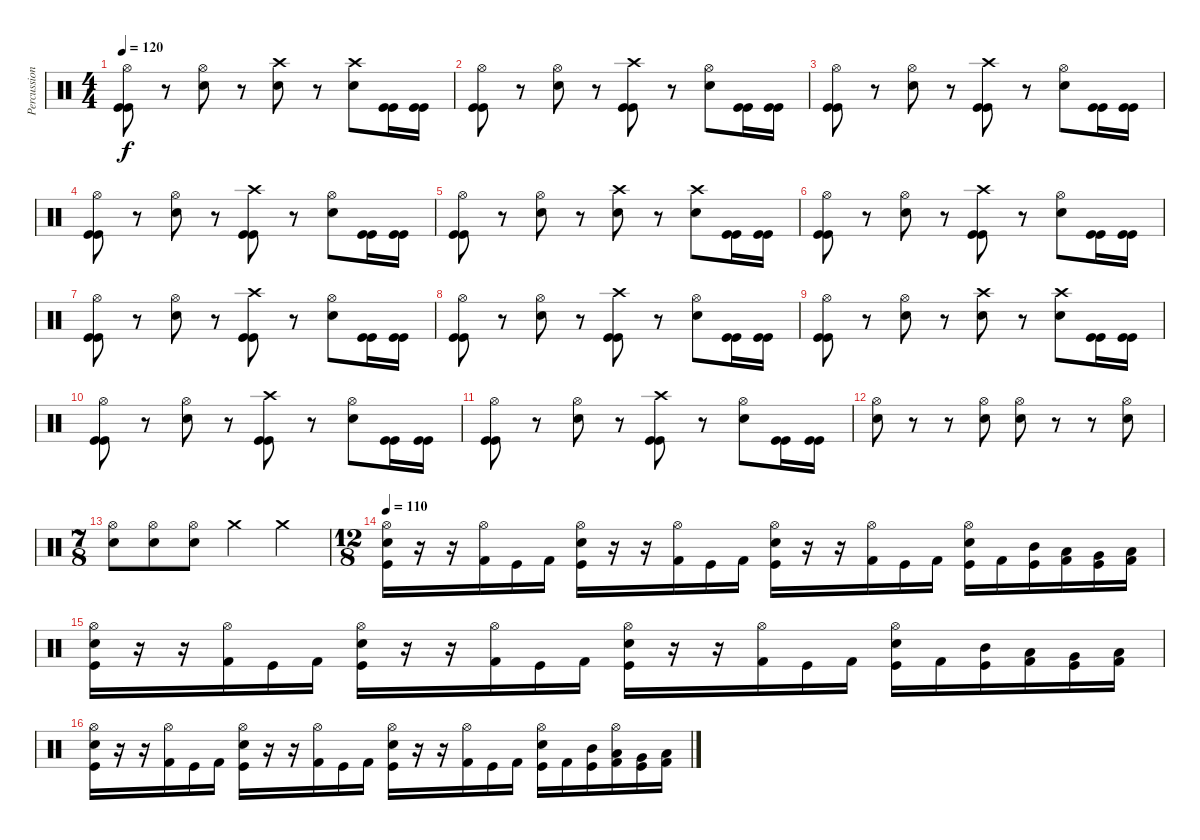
\track ("Percussion" "Percussion") {instrument percussion}
\staff {score}
\articulation defaults
\ts (4 4)
\tempo 120
\clef neutral
\ks c
("Hi-Hat (open)" "Kick (hit)" "Kick (hit)").8{dy f} r.8 ("Hi-Hat (open)" "Snare (hit) 2").8 r.8 ("Crash high (hit)" "Snare (hit) 2").8 r.8 ("Crash high (hit)" "Snare (hit) 2").8 ("Kick (hit)" "Kick (hit)").16 ("Kick (hit)" "Kick (hit)").16 |
("Hi-Hat (open)" "Kick (hit)" "Kick (hit)").8 r.8 ("Hi-Hat (open)" "Snare (hit) 2").8 r.8 ("Crash high (hit)" "Kick (hit)" "Kick (hit)").8 r.8 ("Hi-Hat (open)" "Snare (hit) 2").8 ("Kick (hit)" "Kick (hit)").16 ("Kick (hit)" "Kick (hit)").16 |
("Hi-Hat (open)" "Kick (hit)" "Kick (hit)").8 r.8 ("Hi-Hat (open)" "Snare (hit) 2").8 r.8 ("Crash high (hit)" "Kick (hit)" "Kick (hit)").8 r.8 ("Hi-Hat (open)" "Snare (hit) 2").8 ("Kick (hit)" "Kick (hit)").16 ("Kick (hit)" "Kick (hit)").16 |
("Hi-Hat (open)" "Kick (hit)" "Kick (hit)").8 r.8 ("Hi-Hat (open)" "Snare (hit) 2").8 r.8 ("Crash high (hit)" "Kick (hit)" "Kick (hit)").8 r.8 ("Hi-Hat (open)" "Snare (hit) 2").8 ("Kick (hit)" "Kick (hit)").16 ("Kick (hit)" "Kick (hit)").16 |
("Hi-Hat (open)" "Kick (hit)" "Kick (hit)").8 r.8 ("Hi-Hat (open)" "Snare (hit) 2").8 r.8 ("Crash high (hit)" "Snare (hit) 2").8 r.8 ("Crash high (hit)" "Snare (hit) 2").8 ("Kick (hit)" "Kick (hit)").16 ("Kick (hit)" "Kick (hit)").16 |
("Hi-Hat (open)" "Kick (hit)" "Kick (hit)").8 r.8 ("Hi-Hat (open)" "Snare (hit) 2").8 r.8 ("Crash high (hit)" "Kick (hit)" "Kick (hit)").8 r.8 ("Hi-Hat (open)" "Snare (hit) 2").8 ("Kick (hit)" "Kick (hit)").16 ("Kick (hit)" "Kick (hit)").16 |
("Hi-Hat (open)" "Kick (hit)" "Kick (hit)").8 r.8 ("Hi-Hat (open)" "Snare (hit) 2").8 r.8 ("Crash high (hit)" "Kick (hit)" "Kick (hit)").8 r.8 ("Hi-Hat (open)" "Snare (hit) 2").8 ("Kick (hit)" "Kick (hit)").16 ("Kick (hit)" "Kick (hit)").16 |
("Hi-Hat (open)" "Kick (hit)" "Kick (hit)").8 r.8 ("Hi-Hat (open)" "Snare (hit) 2").8 r.8 ("Crash high (hit)" "Kick (hit)" "Kick (hit)").8 r.8 ("Hi-Hat (open)" "Snare (hit) 2").8 ("Kick (hit)" "Kick (hit)").16 ("Kick (hit)" "Kick (hit)").16 |
("Hi-Hat (open)" "Kick (hit)" "Kick (hit)").8 r.8 ("Hi-Hat (open)" "Snare (hit) 2").8 r.8 ("Crash high (hit)" "Snare (hit) 2").8 r.8 ("Crash high (hit)" "Snare (hit) 2").8 ("Kick (hit)" "Kick (hit)").16 ("Kick (hit)" "Kick (hit)").16 |
("Hi-Hat (open)" "Kick (hit)" "Kick (hit)").8 r.8 ("Hi-Hat (open)" "Snare (hit) 2").8 r.8 ("Crash high (hit)" "Kick (hit)" "Kick (hit)").8 r.8 ("Hi-Hat (open)" "Snare (hit) 2").8 ("Kick (hit)" "Kick (hit)").16 ("Kick (hit)" "Kick (hit)").16 |
("Hi-Hat (open)" "Kick (hit)" "Kick (hit)").8 r.8 ("Hi-Hat (open)" "Snare (hit) 2").8 r.8 ("Crash high (hit)" "Kick (hit)" "Kick (hit)").8 r.8 ("Hi-Hat (open)" "Snare (hit) 2").8 ("Kick (hit)" "Kick (hit)").16 ("Kick (hit)" "Kick (hit)").16 |
("Hi-Hat (open)" "Snare (hit) 2").8 r.8 r.8 ("Hi-Hat (open)" "Snare (hit) 2").8 ("Hi-Hat (open)" "Snare (hit) 2").8 r.8 r.8 ("Hi-Hat (open)" "Snare (hit) 2").8 |
\ts (7 8)
("Hi-Hat (open)" "Snare (hit) 2").8 ("Hi-Hat (open)" "Snare (hit) 2").8 ("Hi-Hat (open)" "Snare (hit) 2").8 "Crash medium (hit)".4 "Crash medium (hit)".4 |
\ts (12 8)
\tempo 110
("Hi-Hat (open)" "Snare (hit) 2" "Kick (hit)").16 r.16 r.16 ("Hi-Hat (open)" "Kick (hit) 2").16 "Kick (hit)".16 "Kick (hit) 2".16 ("Hi-Hat (open)" "Snare (hit) 2" "Kick (hit)").16 r.16 r.16 ("Hi-Hat (open)" "Kick (hit) 2").16 "Kick (hit)".16 "Kick (hit) 2".16 ("Hi-Hat (open)" "Snare (hit) 2" "Kick (hit)").16 r.16 r.16 ("Hi-Hat (open)" "Kick (hit) 2").16 "Kick (hit)".16 "Kick (hit) 2".16 ("Hi-Hat (open)" "Snare (hit) 2" "Kick (hit)").16 "Kick (hit) 2".16 ("Mid Tom (hit)" "Kick (hit)").16 ("Low Tom (hit)" "Kick (hit) 2").16 ("Very Low Tom (hit)" "Kick (hit)").16 ("Low Floor Tom (hit)" "Kick (hit) 2").16 |
("Hi-Hat (open)" "Snare (hit) 2" "Kick (hit)").16 r.16 r.16 ("Hi-Hat (open)" "Kick (hit) 2").16 "Kick (hit)".16 "Kick (hit) 2".16 ("Hi-Hat (open)" "Snare (hit) 2" "Kick (hit)").16 r.16 r.16 ("Hi-Hat (open)" "Kick (hit) 2").16 "Kick (hit)".16 "Kick (hit) 2".16 ("Hi-Hat (open)" "Snare (hit) 2" "Kick (hit)").16 r.16 r.16 ("Hi-Hat (open)" "Kick (hit) 2").16 "Kick (hit)".16 "Kick (hit) 2".16 ("Hi-Hat (open)" "Snare (hit) 2" "Kick (hit)").16 "Kick (hit) 2".16 ("Mid Tom (hit)" "Kick (hit)").16 ("Low Tom (hit)" "Kick (hit) 2").16 ("Very Low Tom (hit)" "Kick (hit)").16 ("Low Floor Tom (hit)" "Kick (hit) 2").16 |
("Hi-Hat (open)" "Snare (hit) 2" "Kick (hit)").16 r.16 r.16 ("Hi-Hat (open)" "Kick (hit) 2").16 "Kick (hit)".16 "Kick (hit) 2".16 ("Hi-Hat (open)" "Snare (hit) 2" "Kick (hit)").16 r.16 r.16 ("Hi-Hat (open)" "Kick (hit) 2").16 "Kick (hit)".16 "Kick (hit) 2".16 ("Hi-Hat (open)" "Snare (hit) 2" "Kick (hit)").16 r.16 r.16 ("Hi-Hat (open)" "Kick (hit) 2").16 "Kick (hit)".16 "Kick (hit) 2".16 ("Hi-Hat (open)" "Snare (hit) 2" "Kick (hit)").16 "Kick (hit) 2".16 ("Mid Tom (hit)" "Kick (hit)").16 ("Hi-Hat (open)" "Low Tom (hit)" "Kick (hit) 2").16 ("Very Low Tom (hit)" "Kick (hit)").16 ("Low Floor Tom (hit)" "Kick (hit) 2").16
